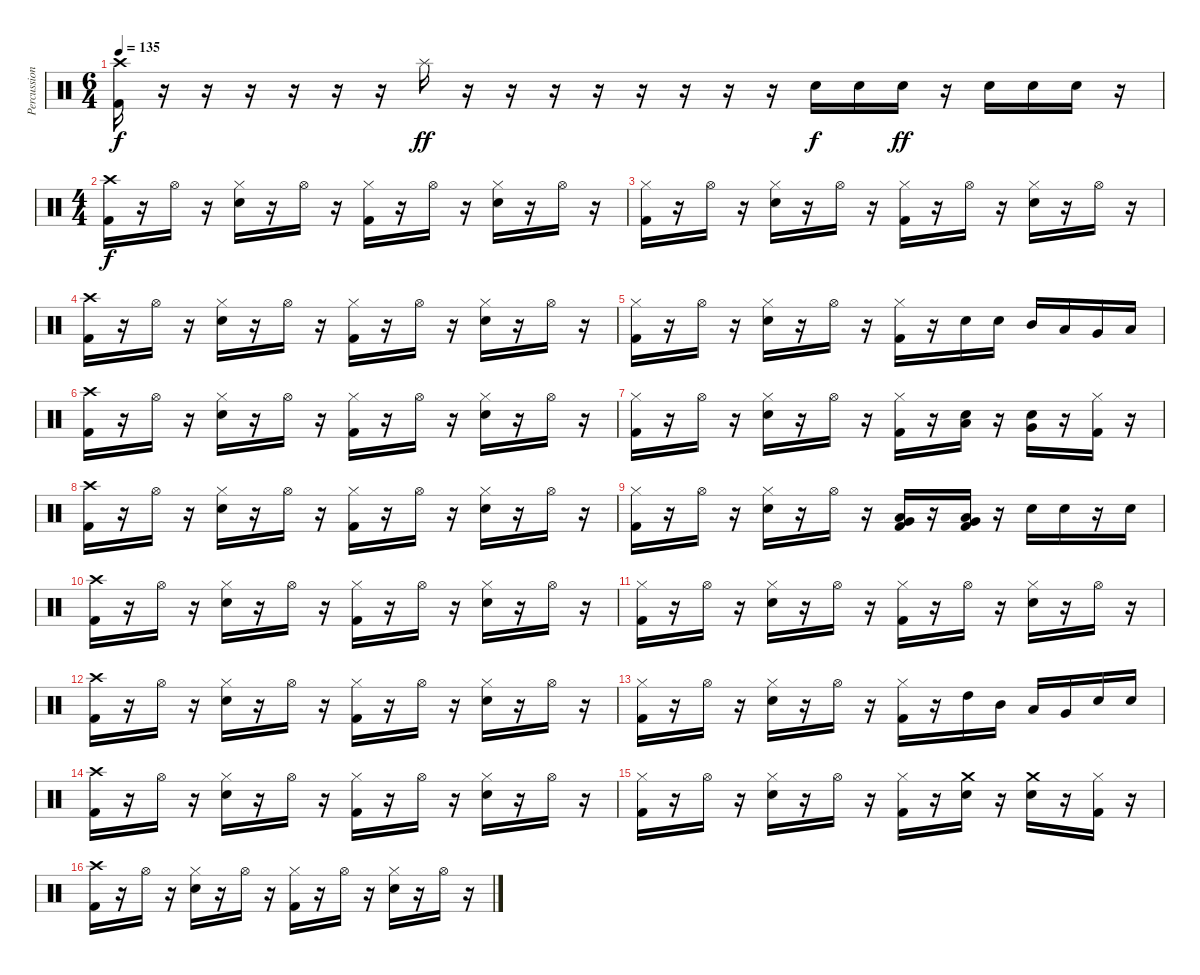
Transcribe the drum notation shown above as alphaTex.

\track ("Percussion" "Percussion") {instrument percussion}
\staff {score}
\articulation defaults
\ts (6 4)
\tempo 135
\clef neutral
\ks c
("Crash high (hit)" "Kick (hit) 2").16{dy f} r.16 r.16 r.16 r.16 r.16 r.16 "Splash (hit)".16{dy ff} r.16 r.16 r.16 r.16 r.16 r.16 r.16 r.16 "Snare (hit) 2".16{dy f} "Snare (hit) 2".16 "Snare (hit) 2".16{dy ff} r.16 "Snare (hit) 2".16 "Snare (hit) 2".16 "Snare (hit) 2".16 r.16 |
\ts (4 4)
("Crash high (hit)" "Kick (hit) 2").16{dy f} r.16 "Hi-Hat (open)".16 r.16 ("Hi-Hat (closed)" "Snare (hit) 2").16 r.16 "Hi-Hat (open)".16 r.16 ("Hi-Hat (closed)" "Kick (hit) 2").16 r.16 "Hi-Hat (open)".16 r.16 ("Hi-Hat (closed)" "Snare (hit) 2").16 r.16 "Hi-Hat (open)".16 r.16 |
("Hi-Hat (closed)" "Kick (hit) 2").16 r.16 "Hi-Hat (open)".16 r.16 ("Hi-Hat (closed)" "Snare (hit) 2").16 r.16 "Hi-Hat (open)".16 r.16 ("Hi-Hat (closed)" "Kick (hit) 2").16 r.16 "Hi-Hat (open)".16 r.16 ("Hi-Hat (closed)" "Snare (hit) 2").16 r.16 "Hi-Hat (open)".16 r.16 |
("Crash high (hit)" "Kick (hit) 2").16 r.16 "Hi-Hat (open)".16 r.16 ("Hi-Hat (closed)" "Snare (hit) 2").16 r.16 "Hi-Hat (open)".16 r.16 ("Hi-Hat (closed)" "Kick (hit) 2").16 r.16 "Hi-Hat (open)".16 r.16 ("Hi-Hat (closed)" "Snare (hit) 2").16 r.16 "Hi-Hat (open)".16 r.16 |
("Hi-Hat (closed)" "Kick (hit) 2").16 r.16 "Hi-Hat (open)".16 r.16 ("Hi-Hat (closed)" "Snare (hit) 2").16 r.16 "Hi-Hat (open)".16 r.16 ("Hi-Hat (closed)" "Kick (hit) 2").16 r.16 "Snare (hit) 2".16 "Snare (hit) 2".16 "Mid Tom (hit)".16 "Low Tom (hit)".16 "Very Low Tom (hit)".16 "Low Floor Tom (hit)".16 |
("Crash high (hit)" "Kick (hit) 2").16 r.16 "Hi-Hat (open)".16 r.16 ("Hi-Hat (closed)" "Snare (hit) 2").16 r.16 "Hi-Hat (open)".16 r.16 ("Hi-Hat (closed)" "Kick (hit) 2").16 r.16 "Hi-Hat (open)".16 r.16 ("Hi-Hat (closed)" "Snare (hit) 2").16 r.16 "Hi-Hat (open)".16 r.16 |
("Hi-Hat (closed)" "Kick (hit) 2").16 r.16 "Hi-Hat (open)".16 r.16 ("Hi-Hat (closed)" "Snare (hit) 2").16 r.16 "Hi-Hat (open)".16 r.16 ("Hi-Hat (closed)" "Kick (hit) 2").16 r.16 ("Low Tom (hit)" "Snare (hit) 2").16 r.16 ("Very Low Tom (hit)" "Snare (hit) 2").16 r.16 ("Hi-Hat (closed)" "Kick (hit) 2").16 r.16 |
("Crash high (hit)" "Kick (hit) 2").16 r.16 "Hi-Hat (open)".16 r.16 ("Hi-Hat (closed)" "Snare (hit) 2").16 r.16 "Hi-Hat (open)".16 r.16 ("Hi-Hat (closed)" "Kick (hit) 2").16 r.16 "Hi-Hat (open)".16 r.16 ("Hi-Hat (closed)" "Snare (hit) 2").16 r.16 "Hi-Hat (open)".16 r.16 |
("Hi-Hat (closed)" "Kick (hit) 2").16 r.16 "Hi-Hat (open)".16 r.16 ("Hi-Hat (closed)" "Snare (hit) 2").16 r.16 "Hi-Hat (open)".16 r.16 ("Low Tom (hit)" "Very Low Tom (hit)" "Kick (hit) 2").16 r.16 ("Very Low Tom (hit)" "Low Floor Tom (hit)" "Kick (hit) 2").16 r.16 "Snare (hit) 2".16 "Snare (hit) 2".16 r.16 "Snare (hit) 2".16 |
("Crash high (hit)" "Kick (hit) 2").16 r.16 "Hi-Hat (open)".16 r.16 ("Hi-Hat (closed)" "Snare (hit) 2").16 r.16 "Hi-Hat (open)".16 r.16 ("Hi-Hat (closed)" "Kick (hit) 2").16 r.16 "Hi-Hat (open)".16 r.16 ("Hi-Hat (closed)" "Snare (hit) 2").16 r.16 "Hi-Hat (open)".16 r.16 |
("Hi-Hat (closed)" "Kick (hit) 2").16 r.16 "Hi-Hat (open)".16 r.16 ("Hi-Hat (closed)" "Snare (hit) 2").16 r.16 "Hi-Hat (open)".16 r.16 ("Hi-Hat (closed)" "Kick (hit) 2").16 r.16 "Hi-Hat (open)".16 r.16 ("Hi-Hat (closed)" "Snare (hit) 2").16 r.16 "Hi-Hat (open)".16 r.16 |
("Crash high (hit)" "Kick (hit) 2").16 r.16 "Hi-Hat (open)".16 r.16 ("Hi-Hat (closed)" "Snare (hit) 2").16 r.16 "Hi-Hat (open)".16 r.16 ("Hi-Hat (closed)" "Kick (hit) 2").16 r.16 "Hi-Hat (open)".16 r.16 ("Hi-Hat (closed)" "Snare (hit) 2").16 r.16 "Hi-Hat (open)".16 r.16 |
("Hi-Hat (closed)" "Kick (hit) 2").16 r.16 "Hi-Hat (open)".16 r.16 ("Hi-Hat (closed)" "Snare (hit) 2").16 r.16 "Hi-Hat (open)".16 r.16 ("Hi-Hat (closed)" "Kick (hit) 2").16 r.16 "High Tom (hit)".16 "Mid Tom (hit)".16 "Low Tom (hit)".16 "Very Low Tom (hit)".16 "Snare (hit) 2".16 "Snare (hit) 2".16 |
("Crash high (hit)" "Kick (hit) 2").16 r.16 "Hi-Hat (open)".16 r.16 ("Hi-Hat (closed)" "Snare (hit) 2").16 r.16 "Hi-Hat (open)".16 r.16 ("Hi-Hat (closed)" "Kick (hit) 2").16 r.16 "Hi-Hat (open)".16 r.16 ("Hi-Hat (closed)" "Snare (hit) 2").16 r.16 "Hi-Hat (open)".16 r.16 |
("Hi-Hat (closed)" "Kick (hit) 2").16 r.16 "Hi-Hat (open)".16 r.16 ("Hi-Hat (closed)" "Snare (hit) 2").16 r.16 "Hi-Hat (open)".16 r.16 ("Hi-Hat (closed)" "Kick (hit) 2").16 r.16 ("Crash medium (hit)" "Snare (hit) 2").16 r.16 ("Crash medium (hit)" "Snare (hit) 2").16 r.16 ("Hi-Hat (closed)" "Kick (hit) 2").16 r.16 |
("Crash high (hit)" "Kick (hit) 2").16 r.16 "Hi-Hat (open)".16 r.16 ("Hi-Hat (closed)" "Snare (hit) 2").16 r.16 "Hi-Hat (open)".16 r.16 ("Hi-Hat (closed)" "Kick (hit) 2").16 r.16 "Hi-Hat (open)".16 r.16 ("Hi-Hat (closed)" "Snare (hit) 2").16 r.16 "Hi-Hat (open)".16 r.16
